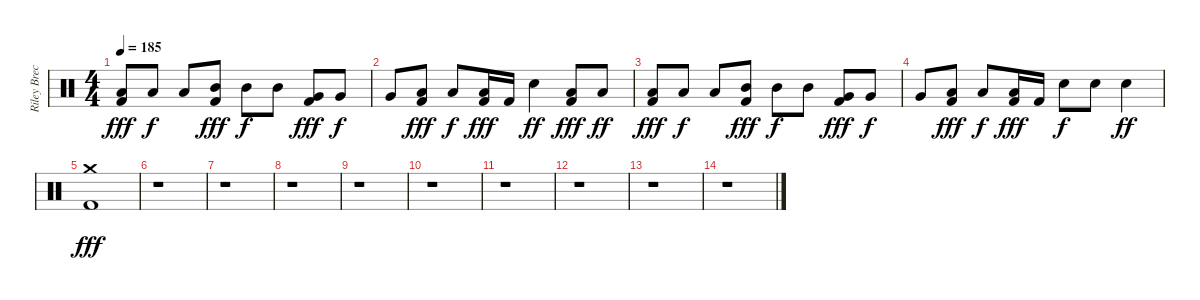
\track ("Riley Breckenridge (Drums)" "Riley Brec") {instrument percussion}
\staff {score}
\articulation defaults
\ts (4 4)
\tempo 185
\clef neutral
\ks c
("Low Tom (hit)" "Kick (hit) 2").8{dy fff} "Low Tom (hit)".8{dy f} "Low Tom (hit)".8 ("Mid Tom (hit)" "Kick (hit) 2").8{dy fff} "Mid Tom (hit)".8{dy f} "Mid Tom (hit)".8 ("Very Low Tom (hit)" "Kick (hit) 2").8{dy fff} "Very Low Tom (hit)".8{dy f} |
"Very Low Tom (hit)".8 ("Low Tom (hit)" "Kick (hit) 2").8{dy fff} "Low Tom (hit)".8{dy f} ("Low Tom (hit)" "Kick (hit) 2").16{dy fff} "Kick (hit) 2".16 "Electric Snare (hit)".4{dy ff} ("Low Tom (hit)" "Kick (hit) 2").8{dy fff} "Low Tom (hit)".8{dy ff} |
("Low Tom (hit)" "Kick (hit) 2").8{dy fff} "Low Tom (hit)".8{dy f} "Low Tom (hit)".8 ("Mid Tom (hit)" "Kick (hit) 2").8{dy fff} "Mid Tom (hit)".8{dy f} "Mid Tom (hit)".8 ("Very Low Tom (hit)" "Kick (hit) 2").8{dy fff} "Very Low Tom (hit)".8{dy f} |
"Very Low Tom (hit)".8 ("Low Tom (hit)" "Kick (hit) 2").8{dy fff} "Low Tom (hit)".8{dy f} ("Low Tom (hit)" "Kick (hit) 2").16{dy fff} "Kick (hit) 2".16 "Electric Snare (hit)".8{dy f} "Electric Snare (hit)".8 "Electric Snare (hit)".4{dy ff} |
("Crash medium (hit)" "Kick (hit) 2").1{dy fff} |
r.1 |
r.1 |
r.1 |
r.1 |
r.1 |
r.1 |
r.1 |
r.1 |
r.1
